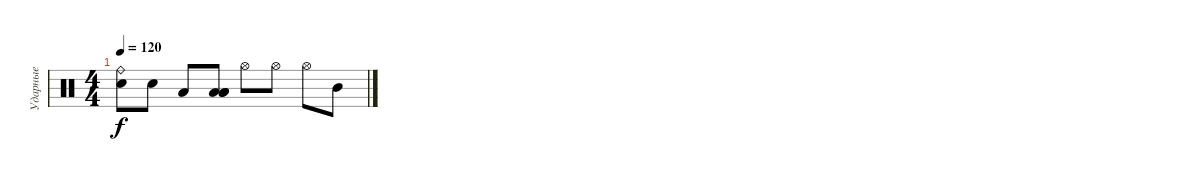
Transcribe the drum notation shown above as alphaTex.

\track ("Ударные" "Ударные") {instrument percussion}
\staff {score}
\articulation defaults
\ts (4 4)
\tempo 120
\clef neutral
\ks c
("Ride (bell)" "Snare (hit)").8{dy f} "Metronome (bell)".8 "Low Tom (hit)".8 ("Low Tom (hit)" "Low Tom (hit)" "Low Tom (hit)").8 "Hi-Hat (open)".8 "Hi-Hat (open)".8 "Hi-Hat (open)".8 "Mid Tom (hit)".8
